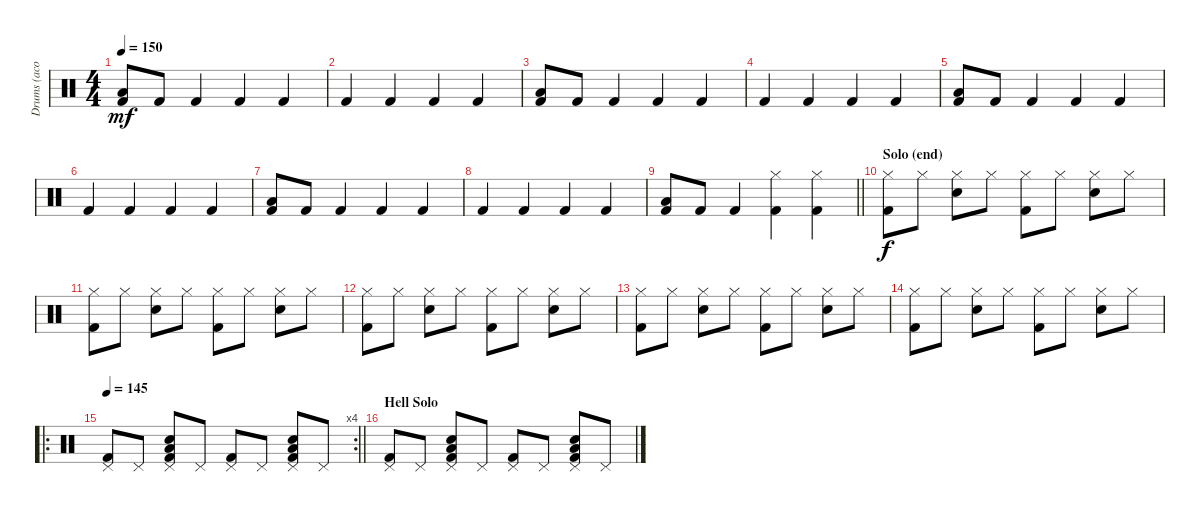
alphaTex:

\track ("Drums (acoustic drumset)" "Drums (aco") {instrument percussion}
\staff {score}
\articulation defaults
\ts (4 4)
\tempo 150
\clef neutral
\ks c
("Low Floor Tom (hit)" "Kick (hit) 2").8{dy mf} "Kick (hit) 2".8 "Kick (hit) 2".4 "Kick (hit) 2".4 "Kick (hit) 2".4 |
"Kick (hit) 2".4 "Kick (hit) 2".4 "Kick (hit) 2".4 "Kick (hit) 2".4 |
("Low Floor Tom (hit)" "Kick (hit) 2").8 "Kick (hit) 2".8 "Kick (hit) 2".4 "Kick (hit) 2".4 "Kick (hit) 2".4 |
"Kick (hit) 2".4 "Kick (hit) 2".4 "Kick (hit) 2".4 "Kick (hit) 2".4 |
("Low Floor Tom (hit)" "Kick (hit) 2").8 "Kick (hit) 2".8 "Kick (hit) 2".4 "Kick (hit) 2".4 "Kick (hit) 2".4 |
"Kick (hit) 2".4 "Kick (hit) 2".4 "Kick (hit) 2".4 "Kick (hit) 2".4 |
("Low Floor Tom (hit)" "Kick (hit) 2").8 "Kick (hit) 2".8 "Kick (hit) 2".4 "Kick (hit) 2".4 "Kick (hit) 2".4 |
"Kick (hit) 2".4 "Kick (hit) 2".4 "Kick (hit) 2".4 "Kick (hit) 2".4 |
\barLineRight lightlight
("Low Floor Tom (hit)" "Kick (hit) 2").8 "Kick (hit) 2".8 "Kick (hit) 2".4 ("Hi-Hat (closed)" "Kick (hit) 2").4 ("Hi-Hat (closed)" "Kick (hit) 2").4 |
\section ("" "Solo (end)")
("Hi-Hat (closed)" "Kick (hit) 2").8{dy f} "Hi-Hat (closed)".8 ("Hi-Hat (closed)" "Electric Snare (hit)").8 "Hi-Hat (closed)".8 ("Hi-Hat (closed)" "Kick (hit) 2").8 "Hi-Hat (closed)".8 ("Hi-Hat (closed)" "Electric Snare (hit)").8 "Hi-Hat (closed)".8 |
("Hi-Hat (closed)" "Kick (hit) 2").8 "Hi-Hat (closed)".8 ("Hi-Hat (closed)" "Electric Snare (hit)").8 "Hi-Hat (closed)".8 ("Hi-Hat (closed)" "Kick (hit) 2").8 "Hi-Hat (closed)".8 ("Hi-Hat (closed)" "Electric Snare (hit)").8 "Hi-Hat (closed)".8 |
("Hi-Hat (closed)" "Kick (hit) 2").8 "Hi-Hat (closed)".8 ("Hi-Hat (closed)" "Electric Snare (hit)").8 "Hi-Hat (closed)".8 ("Hi-Hat (closed)" "Kick (hit) 2").8 "Hi-Hat (closed)".8 ("Hi-Hat (closed)" "Electric Snare (hit)").8 "Hi-Hat (closed)".8 |
("Hi-Hat (closed)" "Kick (hit) 2").8 "Hi-Hat (closed)".8 ("Hi-Hat (closed)" "Electric Snare (hit)").8 "Hi-Hat (closed)".8 ("Hi-Hat (closed)" "Kick (hit) 2").8 "Hi-Hat (closed)".8 ("Hi-Hat (closed)" "Electric Snare (hit)").8 "Hi-Hat (closed)".8 |
("Hi-Hat (closed)" "Kick (hit) 2").8 "Hi-Hat (closed)".8 ("Hi-Hat (closed)" "Electric Snare (hit)").8 "Hi-Hat (closed)".8 ("Hi-Hat (closed)" "Kick (hit) 2").8 "Hi-Hat (closed)".8 ("Hi-Hat (closed)" "Electric Snare (hit)").8 "Hi-Hat (closed)".8 |
\ro
\rc 4
\tempo 145
\barLineRight lightlight
("Pedal Hi-Hat (hit)" "Kick (hit) 2").8 "Pedal Hi-Hat (hit)".8 ("Pedal Hi-Hat (hit)" "Low Floor Tom (hit)" "Electric Snare (hit)" "Kick (hit) 2").8 "Pedal Hi-Hat (hit)".8 ("Pedal Hi-Hat (hit)" "Kick (hit) 2").8 "Pedal Hi-Hat (hit)".8 ("Pedal Hi-Hat (hit)" "Low Floor Tom (hit)" "Electric Snare (hit)" "Kick (hit) 2").8 "Pedal Hi-Hat (hit)".8 |
\section ("" "Hell Solo")
("Pedal Hi-Hat (hit)" "Kick (hit) 2").8 "Pedal Hi-Hat (hit)".8 ("Pedal Hi-Hat (hit)" "Low Floor Tom (hit)" "Electric Snare (hit)" "Kick (hit) 2").8 "Pedal Hi-Hat (hit)".8 ("Pedal Hi-Hat (hit)" "Kick (hit) 2").8 "Pedal Hi-Hat (hit)".8 ("Pedal Hi-Hat (hit)" "Low Floor Tom (hit)" "Electric Snare (hit)" "Kick (hit) 2").8 "Pedal Hi-Hat (hit)".8
